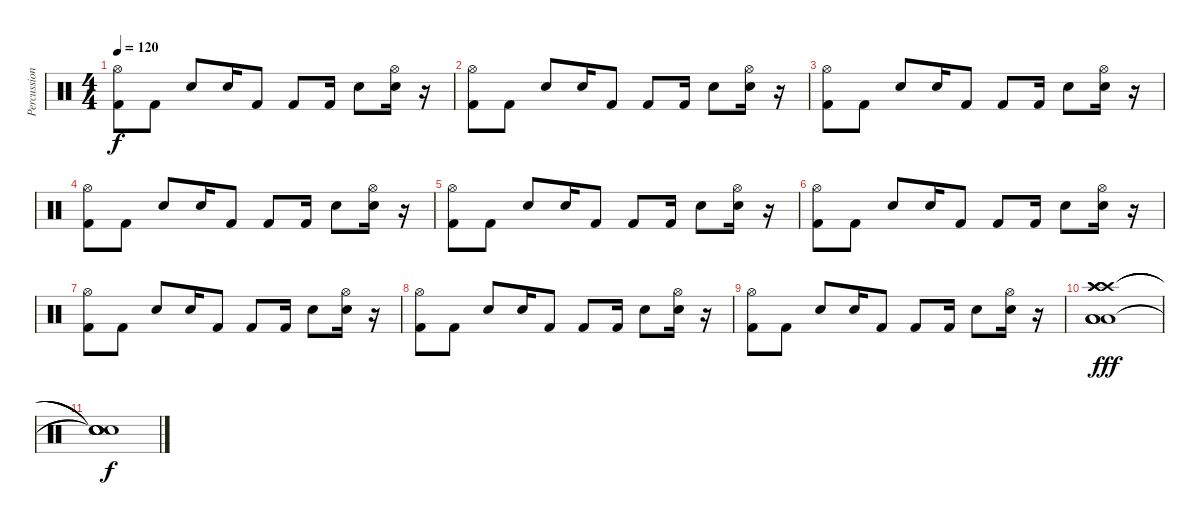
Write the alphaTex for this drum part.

\track ("Percussion - CJ" "Percussion") {instrument percussion}
\staff {score}
\articulation defaults
\ts (4 4)
\tempo 120
\clef neutral
\ks c
("Kick (hit) 2" "Hi-Hat (open)").8{dy f} "Kick (hit) 2".8 "Electric Snare (hit)".8 "Electric Snare (hit)".16 "Kick (hit) 2".8 "Kick (hit) 2".8 "Kick (hit) 2".16 "Electric Snare (hit)".8 ("Electric Snare (hit)" "Hi-Hat (open)").16 r.16 |
("Kick (hit) 2" "Hi-Hat (open)").8 "Kick (hit) 2".8 "Electric Snare (hit)".8 "Electric Snare (hit)".16 "Kick (hit) 2".8 "Kick (hit) 2".8 "Kick (hit) 2".16 "Electric Snare (hit)".8 ("Electric Snare (hit)" "Hi-Hat (open)").16 r.16 |
("Kick (hit) 2" "Hi-Hat (open)").8 "Kick (hit) 2".8 "Electric Snare (hit)".8 "Electric Snare (hit)".16 "Kick (hit) 2".8 "Kick (hit) 2".8 "Kick (hit) 2".16 "Electric Snare (hit)".8 ("Electric Snare (hit)" "Hi-Hat (open)").16 r.16 |
("Kick (hit) 2" "Hi-Hat (open)").8 "Kick (hit) 2".8 "Electric Snare (hit)".8 "Electric Snare (hit)".16 "Kick (hit) 2".8 "Kick (hit) 2".8 "Kick (hit) 2".16 "Electric Snare (hit)".8 ("Electric Snare (hit)" "Hi-Hat (open)").16 r.16 |
("Kick (hit) 2" "Hi-Hat (open)").8 "Kick (hit) 2".8 "Electric Snare (hit)".8 "Electric Snare (hit)".16 "Kick (hit) 2".8 "Kick (hit) 2".8 "Kick (hit) 2".16 "Electric Snare (hit)".8 ("Electric Snare (hit)" "Hi-Hat (open)").16 r.16 |
("Kick (hit) 2" "Hi-Hat (open)").8 "Kick (hit) 2".8 "Electric Snare (hit)".8 "Electric Snare (hit)".16 "Kick (hit) 2".8 "Kick (hit) 2".8 "Kick (hit) 2".16 "Electric Snare (hit)".8 ("Electric Snare (hit)" "Hi-Hat (open)").16 r.16 |
("Kick (hit) 2" "Hi-Hat (open)").8 "Kick (hit) 2".8 "Electric Snare (hit)".8 "Electric Snare (hit)".16 "Kick (hit) 2".8 "Kick (hit) 2".8 "Kick (hit) 2".16 "Electric Snare (hit)".8 ("Electric Snare (hit)" "Hi-Hat (open)").16 r.16 |
("Kick (hit) 2" "Hi-Hat (open)").8 "Kick (hit) 2".8 "Electric Snare (hit)".8 "Electric Snare (hit)".16 "Kick (hit) 2".8 "Kick (hit) 2".8 "Kick (hit) 2".16 "Electric Snare (hit)".8 ("Electric Snare (hit)" "Hi-Hat (open)").16 r.16 |
("Kick (hit) 2" "Hi-Hat (open)").8 "Kick (hit) 2".8 "Electric Snare (hit)".8 "Electric Snare (hit)".16 "Kick (hit) 2".8 "Kick (hit) 2".8 "Kick (hit) 2".16 "Electric Snare (hit)".8 ("Electric Snare (hit)" "Hi-Hat (open)").16 r.16 |
("Crash high (hit)" "Crash high (hit)" "Crash high (hit)" "Low Tom (hit)" "Low Tom (hit)" "Low Tom (hit)").1{dy fff} |
("Snare (hit)"{t} "Snare (hit)"{t} "Snare (hit)"{t} "Snare (hit)"{t} "Snare (hit)"{t}).1{dy f}
